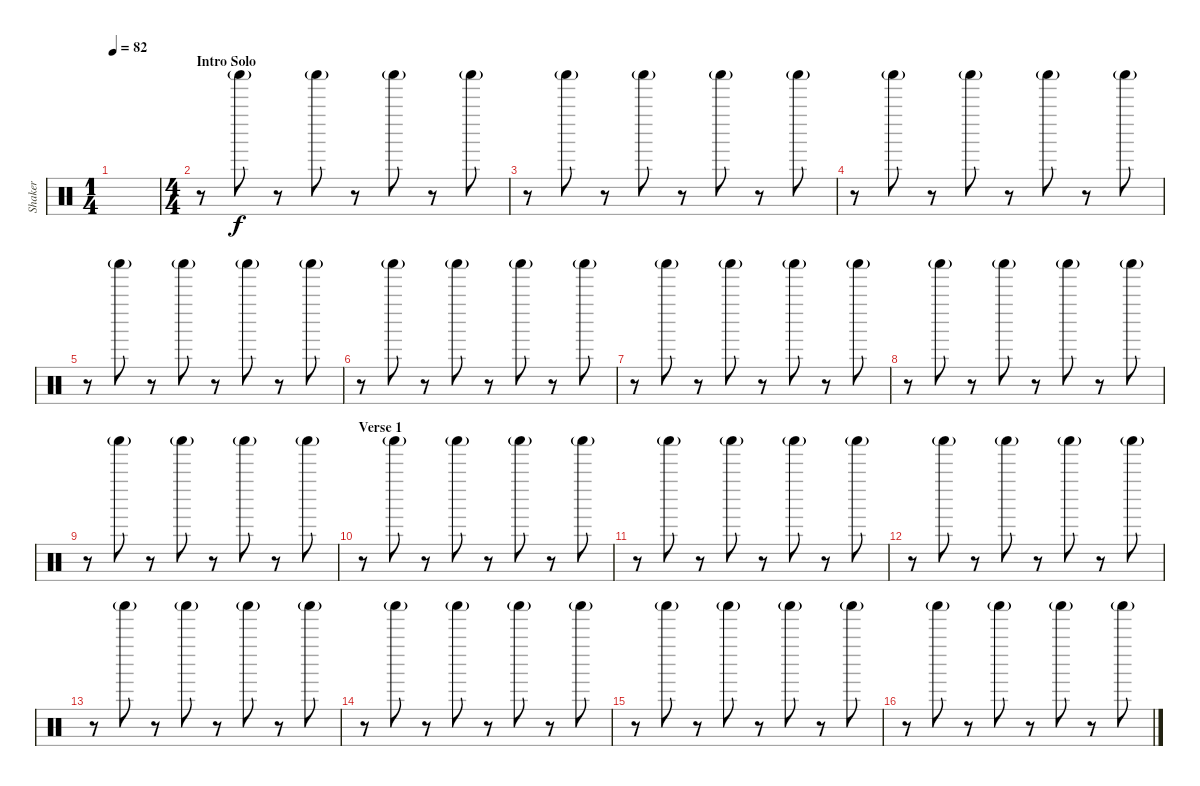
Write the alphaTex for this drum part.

\track ("Shaker" "Shaker") {instrument percussion}
\staff {score}
\articulation defaults
\ts (1 4)
\tempo 82
\clef neutral
\ks c
|
\ts (4 4)
\section ("" "Intro Solo")
r.8 "Shaker (hit)"{g}.8 r.8 "Shaker (hit)"{g}.8 r.8 "Shaker (hit)"{g}.8 r.8 "Shaker (hit)"{g}.8 |
r.8 "Shaker (hit)"{g}.8 r.8 "Shaker (hit)"{g}.8 r.8 "Shaker (hit)"{g}.8 r.8 "Shaker (hit)"{g}.8 |
r.8 "Shaker (hit)"{g}.8 r.8 "Shaker (hit)"{g}.8 r.8 "Shaker (hit)"{g}.8 r.8 "Shaker (hit)"{g}.8 |
r.8 "Shaker (hit)"{g}.8 r.8 "Shaker (hit)"{g}.8 r.8 "Shaker (hit)"{g}.8 r.8 "Shaker (hit)"{g}.8 |
r.8 "Shaker (hit)"{g}.8 r.8 "Shaker (hit)"{g}.8 r.8 "Shaker (hit)"{g}.8 r.8 "Shaker (hit)"{g}.8 |
r.8 "Shaker (hit)"{g}.8 r.8 "Shaker (hit)"{g}.8 r.8 "Shaker (hit)"{g}.8 r.8 "Shaker (hit)"{g}.8 |
r.8 "Shaker (hit)"{g}.8 r.8 "Shaker (hit)"{g}.8 r.8 "Shaker (hit)"{g}.8 r.8 "Shaker (hit)"{g}.8 |
r.8 "Shaker (hit)"{g}.8 r.8 "Shaker (hit)"{g}.8 r.8 "Shaker (hit)"{g}.8 r.8 "Shaker (hit)"{g}.8 |
\section ("" "Verse 1")
r.8 "Shaker (hit)"{g}.8 r.8 "Shaker (hit)"{g}.8 r.8 "Shaker (hit)"{g}.8 r.8 "Shaker (hit)"{g}.8 |
r.8 "Shaker (hit)"{g}.8 r.8 "Shaker (hit)"{g}.8 r.8 "Shaker (hit)"{g}.8 r.8 "Shaker (hit)"{g}.8 |
r.8 "Shaker (hit)"{g}.8 r.8 "Shaker (hit)"{g}.8 r.8 "Shaker (hit)"{g}.8 r.8 "Shaker (hit)"{g}.8 |
r.8 "Shaker (hit)"{g}.8 r.8 "Shaker (hit)"{g}.8 r.8 "Shaker (hit)"{g}.8 r.8 "Shaker (hit)"{g}.8 |
r.8 "Shaker (hit)"{g}.8 r.8 "Shaker (hit)"{g}.8 r.8 "Shaker (hit)"{g}.8 r.8 "Shaker (hit)"{g}.8 |
r.8 "Shaker (hit)"{g}.8 r.8 "Shaker (hit)"{g}.8 r.8 "Shaker (hit)"{g}.8 r.8 "Shaker (hit)"{g}.8 |
r.8 "Shaker (hit)"{g}.8 r.8 "Shaker (hit)"{g}.8 r.8 "Shaker (hit)"{g}.8 r.8 "Shaker (hit)"{g}.8
